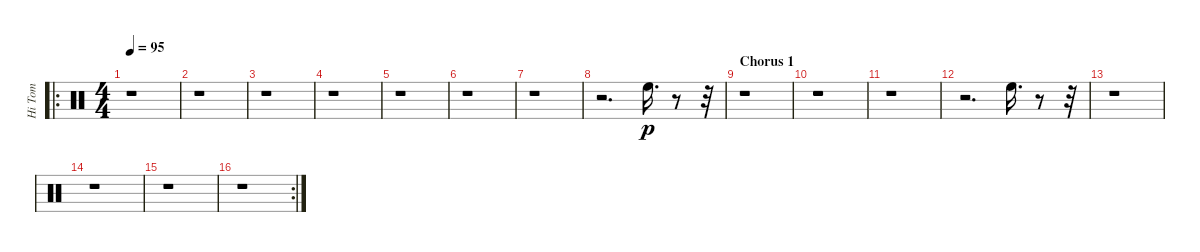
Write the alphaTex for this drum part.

\track ("Hi Tom" "Hi Tom") {instrument percussion}
\staff {score}
\articulation defaults
\ro
\ts (4 4)
\tempo 95
\clef neutral
\ks c
r.1{dy p} |
r.1 |
r.1 |
r.1 |
r.1 |
r.1 |
r.1 |
r.2{d} "High Floor Tom (hit)".16{d} r.8 r.32 |
\section ("" "Chorus 1")
r.1 |
r.1 |
r.1 |
r.2{d} "High Floor Tom (hit)".16{d} r.8 r.32 |
r.1 |
r.1 |
r.1 |
\rc 2
r.1
